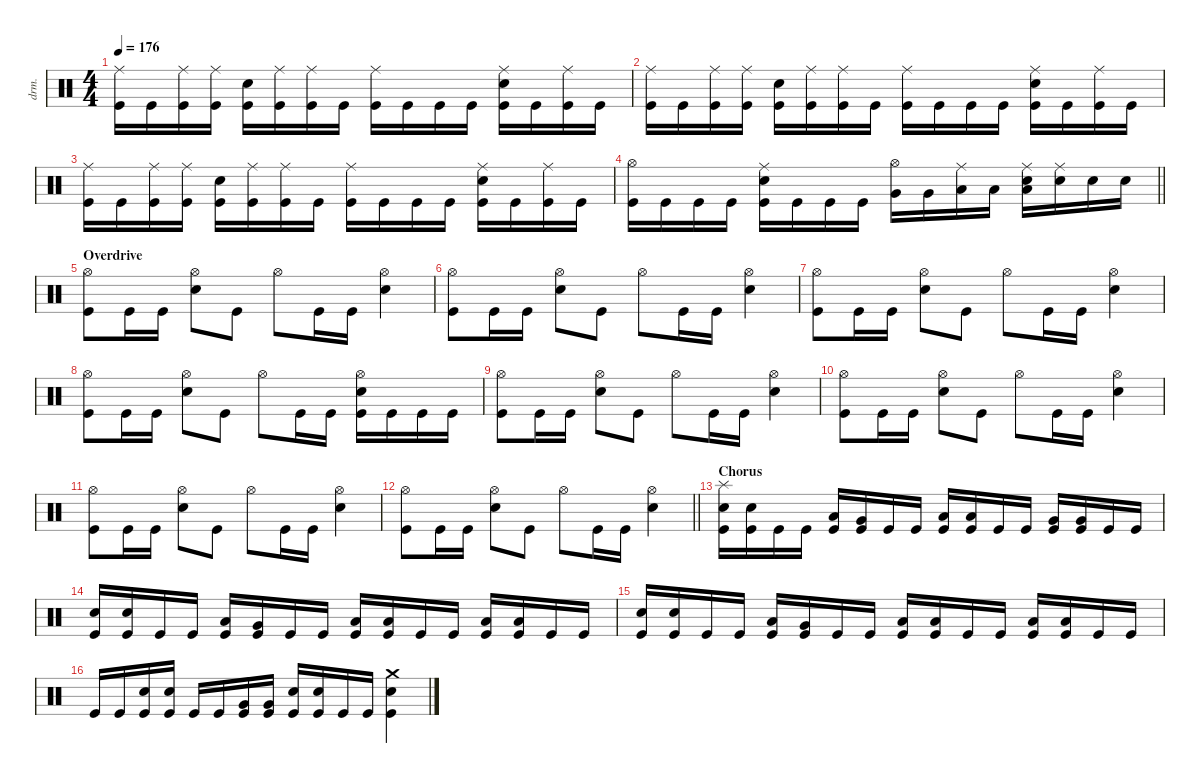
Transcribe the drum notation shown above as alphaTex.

\defaultSystemsLayout 4
\hideDynamics
\bracketExtendMode nobrackets
\track ("Gene Hoglan " "drm.") {instrument percussion}
\staff {score}
\articulation defaults
\ts (4 4)
\tempo 176
\clef neutral
\ks c
("Ride (middle)" "Kick (hit)").16{dy f} "Kick (hit)".16 ("Ride (middle)" "Kick (hit)").16 ("Ride (middle)" "Kick (hit)").16 ("Snare (hit) 2" "Kick (hit)").16 ("Ride (middle)" "Kick (hit)").16 ("Ride (middle)" "Kick (hit)").16 "Kick (hit)".16 ("Ride (middle)" "Kick (hit)").16 "Kick (hit)".16 "Kick (hit)".16 "Kick (hit)".16 ("Ride (middle)" "Snare (hit) 2" "Kick (hit)").16 "Kick (hit)".16 ("Ride (middle)" "Kick (hit)").16 "Kick (hit)".16 |
("Ride (middle)" "Kick (hit)").16 "Kick (hit)".16 ("Ride (middle)" "Kick (hit)").16 ("Ride (middle)" "Kick (hit)").16 ("Snare (hit) 2" "Kick (hit)").16 ("Ride (middle)" "Kick (hit)").16 ("Ride (middle)" "Kick (hit)").16 "Kick (hit)".16 ("Ride (middle)" "Kick (hit)").16 "Kick (hit)".16 "Kick (hit)".16 "Kick (hit)".16 ("Ride (middle)" "Snare (hit) 2" "Kick (hit)").16 "Kick (hit)".16 ("Ride (middle)" "Kick (hit)").16 "Kick (hit)".16 |
("Ride (middle)" "Kick (hit)").16 "Kick (hit)".16 ("Ride (middle)" "Kick (hit)").16 ("Ride (middle)" "Kick (hit)").16 ("Snare (hit) 2" "Kick (hit)").16 ("Ride (middle)" "Kick (hit)").16 ("Ride (middle)" "Kick (hit)").16 "Kick (hit)".16 ("Ride (middle)" "Kick (hit)").16 "Kick (hit)".16 "Kick (hit)".16 "Kick (hit)".16 ("Ride (middle)" "Snare (hit) 2" "Kick (hit)").16 "Kick (hit)".16 ("Ride (middle)" "Kick (hit)").16 "Kick (hit)".16 |
\barLineRight lightlight
("Hi-Hat (open)" "Kick (hit)").16 "Kick (hit)".16 "Kick (hit)".16 "Kick (hit)".16 ("Ride (middle)" "Snare (hit) 2" "Kick (hit)").16 "Kick (hit)".16 "Kick (hit)".16 "Kick (hit)".16 ("Hi-Hat (open)" "Very Low Tom (hit)").16 "Very Low Tom (hit)".16 ("Ride (middle)" "Low Floor Tom (hit)").16 "Low Floor Tom (hit)".16 ("Ride (middle)" "Snare (hit) 2" "Low Floor Tom (hit)").16 ("Ride (middle)" "Snare (hit) 2").16 "Snare (hit) 2".16 "Snare (hit) 2".16 |
\section ("" "Overdrive")
("Hi-Hat (open)" "Kick (hit)").8 "Kick (hit)".16 "Kick (hit)".16 ("Hi-Hat (open)" "Snare (hit) 2").8 "Kick (hit)".8 "Hi-Hat (open)".8 "Kick (hit)".16 "Kick (hit)".16 ("Hi-Hat (open)" "Snare (hit) 2").4 |
("Hi-Hat (open)" "Kick (hit)").8 "Kick (hit)".16 "Kick (hit)".16 ("Hi-Hat (open)" "Snare (hit) 2").8 "Kick (hit)".8 "Hi-Hat (open)".8 "Kick (hit)".16 "Kick (hit)".16 ("Hi-Hat (open)" "Snare (hit) 2").4 |
("Hi-Hat (open)" "Kick (hit)").8 "Kick (hit)".16 "Kick (hit)".16 ("Hi-Hat (open)" "Snare (hit) 2").8 "Kick (hit)".8 "Hi-Hat (open)".8 "Kick (hit)".16 "Kick (hit)".16 ("Hi-Hat (open)" "Snare (hit) 2").4 |
("Hi-Hat (open)" "Kick (hit)").8 "Kick (hit)".16 "Kick (hit)".16 ("Hi-Hat (open)" "Snare (hit) 2").8 "Kick (hit)".8 "Hi-Hat (open)".8 "Kick (hit)".16 "Kick (hit)".16 ("Hi-Hat (open)" "Snare (hit) 2" "Kick (hit)").16 "Kick (hit)".16 "Kick (hit)".16 "Kick (hit)".16 |
("Hi-Hat (open)" "Kick (hit)").8 "Kick (hit)".16 "Kick (hit)".16 ("Hi-Hat (open)" "Snare (hit) 2").8 "Kick (hit)".8 "Hi-Hat (open)".8 "Kick (hit)".16 "Kick (hit)".16 ("Hi-Hat (open)" "Snare (hit) 2").4 |
("Hi-Hat (open)" "Kick (hit)").8 "Kick (hit)".16 "Kick (hit)".16 ("Hi-Hat (open)" "Snare (hit) 2").8 "Kick (hit)".8 "Hi-Hat (open)".8 "Kick (hit)".16 "Kick (hit)".16 ("Hi-Hat (open)" "Snare (hit) 2").4 |
("Hi-Hat (open)" "Kick (hit)").8 "Kick (hit)".16 "Kick (hit)".16 ("Hi-Hat (open)" "Snare (hit) 2").8 "Kick (hit)".8 "Hi-Hat (open)".8 "Kick (hit)".16 "Kick (hit)".16 ("Hi-Hat (open)" "Snare (hit) 2").4 |
\barLineRight lightlight
("Hi-Hat (open)" "Kick (hit)").8 "Kick (hit)".16 "Kick (hit)".16 ("Hi-Hat (open)" "Snare (hit) 2").8 "Kick (hit)".8 "Hi-Hat (open)".8 "Kick (hit)".16 "Kick (hit)".16 ("Hi-Hat (open)" "Snare (hit) 2").4 |
\section ("" "Chorus")
("Splash (hit)" "Snare (hit) 2" "Kick (hit)").16 ("Snare (hit) 2" "Kick (hit)").16 "Kick (hit)".16 "Kick (hit)".16 ("Low Tom (hit)" "Kick (hit)").16 ("Very Low Tom (hit)" "Kick (hit)").16 "Kick (hit)".16 "Kick (hit)".16 ("Low Tom (hit)" "Kick (hit)").16 ("Low Tom (hit)" "Kick (hit)").16 "Kick (hit)".16 "Kick (hit)".16 ("Very Low Tom (hit)" "Kick (hit)").16 ("Very Low Tom (hit)" "Kick (hit)").16 "Kick (hit)".16 "Kick (hit)".16 |
("Snare (hit) 2" "Kick (hit)").16 ("Snare (hit) 2" "Kick (hit)").16 "Kick (hit)".16 "Kick (hit)".16 ("Low Tom (hit)" "Kick (hit)").16 ("Very Low Tom (hit)" "Kick (hit)").16 "Kick (hit)".16 "Kick (hit)".16 ("Low Tom (hit)" "Kick (hit)").16 ("Low Tom (hit)" "Kick (hit)").16 "Kick (hit)".16 "Kick (hit)".16 ("Low Floor Tom (hit)" "Kick (hit)").16 ("Low Floor Tom (hit)" "Kick (hit)").16 "Kick (hit)".16 "Kick (hit)".16 |
("Snare (hit) 2" "Kick (hit)").16 ("Snare (hit) 2" "Kick (hit)").16 "Kick (hit)".16 "Kick (hit)".16 ("Low Tom (hit)" "Kick (hit)").16 ("Very Low Tom (hit)" "Kick (hit)").16 "Kick (hit)".16 "Kick (hit)".16 ("Low Tom (hit)" "Kick (hit)").16 ("Low Tom (hit)" "Kick (hit)").16 "Kick (hit)".16 "Kick (hit)".16 ("Low Floor Tom (hit)" "Kick (hit)").16 ("Low Floor Tom (hit)" "Kick (hit)").16 "Kick (hit)".16 "Kick (hit)".16 |
"Kick (hit)".16 "Kick (hit)".16 ("Snare (hit) 2" "Kick (hit)").16 ("Snare (hit) 2" "Kick (hit)").16 "Kick (hit)".16 "Kick (hit)".16 ("Very Low Tom (hit)" "Kick (hit)").16 ("Very Low Tom (hit)" "Kick (hit)").16 ("Snare (hit) 2" "Kick (hit)").16 ("Snare (hit) 2" "Kick (hit)").16 "Kick (hit)".16 "Kick (hit)".16 ("Crash medium (hit)" "Snare (hit) 2" "Kick (hit)").4
